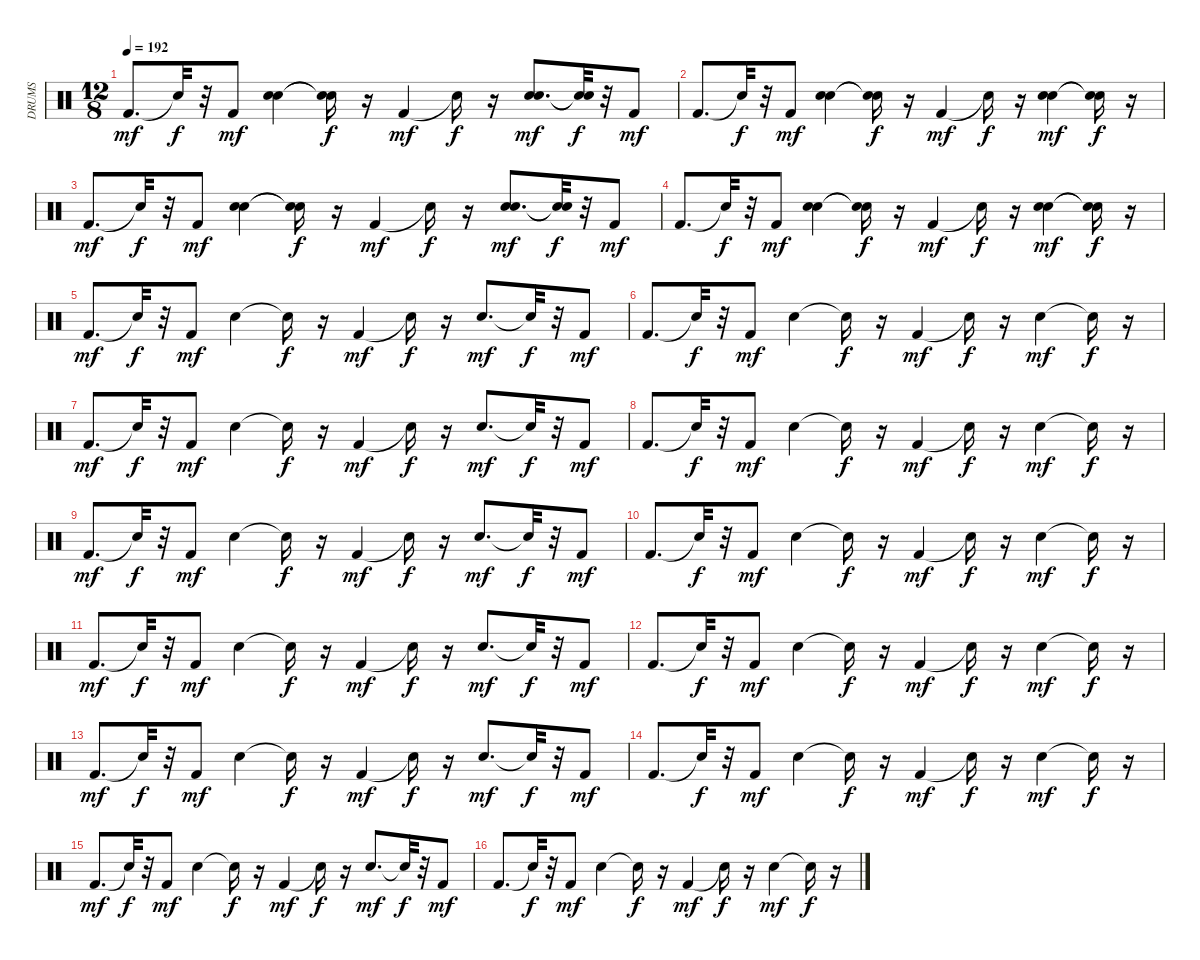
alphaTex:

\track ("DRUMS" "DRUMS") {instrument percussion}
\staff {score}
\articulation defaults
\ts (12 8)
\tempo 192
\clef neutral
\ks c "Kick (hit) 2".8{d dy mf} "Snare (hit)"{t}.32{dy f}
r.32 "Kick (hit) 2".8{dy mf} ("Hand Clap (hit)" "Snare (hit) 2").4 ("Snare (hit)"{t} "Snare (hit)"{t}).16{dy f} r.16 "Kick (hit) 2".4{dy mf} "Snare (hit)"{t}.16{dy f} r.16 ("Hand Clap (hit)" "Snare (hit) 2").8{d dy mf} ("Snare (hit)"{t} "Snare (hit)"{t}).32{dy f} r.32 "Kick (hit) 2".8{dy mf} |
"Kick (hit) 2".8{d} "Snare (hit)"{t}.32{dy f} r.32 "Kick (hit) 2".8{dy mf} ("Hand Clap (hit)" "Snare (hit) 2").4 ("Snare (hit)"{t} "Snare (hit)"{t}).16{dy f} r.16 "Kick (hit) 2".4{dy mf} "Snare (hit)"{t}.16{dy f} r.16 ("Hand Clap (hit)" "Snare (hit) 2").4{dy mf} ("Snare (hit)"{t} "Snare (hit)"{t}).16{dy f} r.16 |
"Kick (hit) 2".8{d dy mf} "Snare (hit)"{t}.32{dy f} r.32 "Kick (hit) 2".8{dy mf} ("Hand Clap (hit)" "Snare (hit) 2").4 ("Snare (hit)"{t} "Snare (hit)"{t}).16{dy f} r.16 "Kick (hit) 2".4{dy mf} "Snare (hit)"{t}.16{dy f} r.16 ("Hand Clap (hit)" "Snare (hit) 2").8{d dy mf} ("Snare (hit)"{t} "Snare (hit)"{t}).32{dy f} r.32 "Kick (hit) 2".8{dy mf} |
"Kick (hit) 2".8{d} "Snare (hit)"{t}.32{dy f} r.32 "Kick (hit) 2".8{dy mf} ("Hand Clap (hit)" "Snare (hit) 2").4 ("Snare (hit)"{t} "Snare (hit)"{t}).16{dy f} r.16 "Kick (hit) 2".4{dy mf} "Snare (hit)"{t}.16{dy f} r.16 ("Hand Clap (hit)" "Snare (hit) 2").4{dy mf} ("Snare (hit)"{t} "Snare (hit)"{t}).16{dy f} r.16 |
"Kick (hit) 2".8{d dy mf} "Snare (hit)"{t}.32{dy f} r.32 "Kick (hit) 2".8{dy mf} "Snare (hit) 2".4 "Snare (hit)"{t}.16{dy f} r.16 "Kick (hit) 2".4{dy mf} "Snare (hit)"{t}.16{dy f} r.16 "Snare (hit) 2".8{d dy mf} "Snare (hit)"{t}.32{dy f} r.32 "Kick (hit) 2".8{dy mf} |
"Kick (hit) 2".8{d} "Snare (hit)"{t}.32{dy f} r.32 "Kick (hit) 2".8{dy mf} "Snare (hit) 2".4 "Snare (hit)"{t}.16{dy f} r.16 "Kick (hit) 2".4{dy mf} "Snare (hit)"{t}.16{dy f} r.16 "Snare (hit) 2".4{dy mf} "Snare (hit)"{t}.16{dy f} r.16 |
"Kick (hit) 2".8{d dy mf} "Snare (hit)"{t}.32{dy f} r.32 "Kick (hit) 2".8{dy mf} "Snare (hit) 2".4 "Snare (hit)"{t}.16{dy f} r.16 "Kick (hit) 2".4{dy mf} "Snare (hit)"{t}.16{dy f} r.16 "Snare (hit) 2".8{d dy mf} "Snare (hit)"{t}.32{dy f} r.32 "Kick (hit) 2".8{dy mf} |
"Kick (hit) 2".8{d} "Snare (hit)"{t}.32{dy f} r.32 "Kick (hit) 2".8{dy mf} "Snare (hit) 2".4 "Snare (hit)"{t}.16{dy f} r.16 "Kick (hit) 2".4{dy mf} "Snare (hit)"{t}.16{dy f} r.16 "Snare (hit) 2".4{dy mf} "Snare (hit)"{t}.16{dy f} r.16 |
"Kick (hit) 2".8{d dy mf} "Snare (hit)"{t}.32{dy f} r.32 "Kick (hit) 2".8{dy mf} "Snare (hit) 2".4 "Snare (hit)"{t}.16{dy f} r.16 "Kick (hit) 2".4{dy mf} "Snare (hit)"{t}.16{dy f} r.16 "Snare (hit) 2".8{d dy mf} "Snare (hit)"{t}.32{dy f} r.32 "Kick (hit) 2".8{dy mf} |
"Kick (hit) 2".8{d} "Snare (hit)"{t}.32{dy f} r.32 "Kick (hit) 2".8{dy mf} "Snare (hit) 2".4 "Snare (hit)"{t}.16{dy f} r.16 "Kick (hit) 2".4{dy mf} "Snare (hit)"{t}.16{dy f} r.16 "Snare (hit) 2".4{dy mf} "Snare (hit)"{t}.16{dy f} r.16 |
"Kick (hit) 2".8{d dy mf} "Snare (hit)"{t}.32{dy f} r.32 "Kick (hit) 2".8{dy mf} "Snare (hit) 2".4 "Snare (hit)"{t}.16{dy f} r.16 "Kick (hit) 2".4{dy mf} "Snare (hit)"{t}.16{dy f} r.16 "Snare (hit) 2".8{d dy mf} "Snare (hit)"{t}.32{dy f} r.32 "Kick (hit) 2".8{dy mf} |
"Kick (hit) 2".8{d} "Snare (hit)"{t}.32{dy f} r.32 "Kick (hit) 2".8{dy mf} "Snare (hit) 2".4 "Snare (hit)"{t}.16{dy f} r.16 "Kick (hit) 2".4{dy mf} "Snare (hit)"{t}.16{dy f} r.16 "Snare (hit) 2".4{dy mf} "Snare (hit)"{t}.16{dy f} r.16 |
"Kick (hit) 2".8{d dy mf} "Snare (hit)"{t}.32{dy f} r.32 "Kick (hit) 2".8{dy mf} "Snare (hit) 2".4 "Snare (hit)"{t}.16{dy f} r.16 "Kick (hit) 2".4{dy mf} "Snare (hit)"{t}.16{dy f} r.16 "Snare (hit) 2".8{d dy mf} "Snare (hit)"{t}.32{dy f} r.32 "Kick (hit) 2".8{dy mf} |
"Kick (hit) 2".8{d} "Snare (hit)"{t}.32{dy f} r.32 "Kick (hit) 2".8{dy mf} "Snare (hit) 2".4 "Snare (hit)"{t}.16{dy f} r.16 "Kick (hit) 2".4{dy mf} "Snare (hit)"{t}.16{dy f} r.16 "Snare (hit) 2".4{dy mf} "Snare (hit)"{t}.16{dy f} r.16 |
"Kick (hit) 2".8{d dy mf} "Snare (hit)"{t}.32{dy f} r.32 "Kick (hit) 2".8{dy mf} "Snare (hit) 2".4 "Snare (hit)"{t}.16{dy f} r.16 "Kick (hit) 2".4{dy mf} "Snare (hit)"{t}.16{dy f} r.16 "Snare (hit) 2".8{d dy mf} "Snare (hit)"{t}.32{dy f} r.32 "Kick (hit) 2".8{dy mf} |
"Kick (hit) 2".8{d} "Snare (hit)"{t}.32{dy f} r.32 "Kick (hit) 2".8{dy mf} "Snare (hit) 2".4 "Snare (hit)"{t}.16{dy f} r.16 "Kick (hit) 2".4{dy mf} "Snare (hit)"{t}.16{dy f} r.16 "Snare (hit) 2".4{dy mf} "Snare (hit)"{t}.16{dy f} r.16
